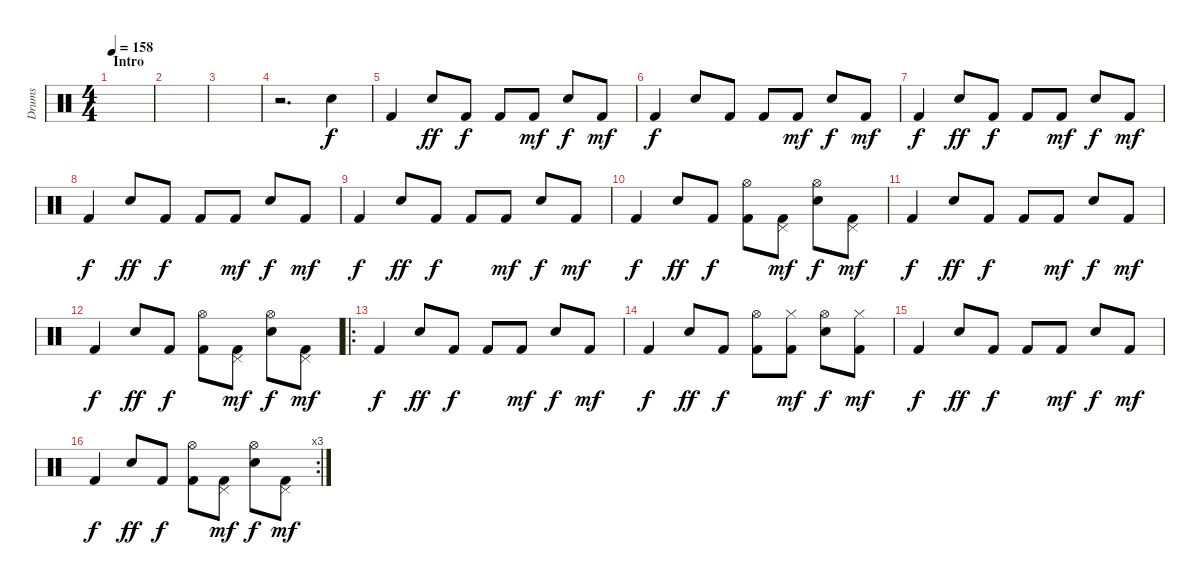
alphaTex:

\track ("Drums" "Drums") {instrument percussion}
\staff {score}
\articulation defaults
\ts (4 4)
\section ("" "Intro")
\tempo 158
\clef neutral
\ks c
|
|
|
r.2{d} "Snare (hit) 2".4 |
"Kick (hit) 2".4{dy f} "Snare (hit) 2".8{dy ff} "Kick (hit) 2".8{dy f} "Kick (hit) 2".8 "Kick (hit) 2".8{dy mf} "Snare (hit) 2".8{dy f} "Kick (hit) 2".8{dy mf} |
"Kick (hit) 2".4{dy f} "Snare (hit) 2".8 "Kick (hit) 2".8 "Kick (hit) 2".8 "Kick (hit) 2".8{dy mf} "Snare (hit) 2".8{dy f} "Kick (hit) 2".8{dy mf} |
"Kick (hit) 2".4{dy f} "Snare (hit) 2".8{dy ff} "Kick (hit) 2".8{dy f} "Kick (hit) 2".8 "Kick (hit) 2".8{dy mf} "Snare (hit) 2".8{dy f} "Kick (hit) 2".8{dy mf} |
"Kick (hit) 2".4{dy f} "Snare (hit) 2".8{dy ff} "Kick (hit) 2".8{dy f} "Kick (hit) 2".8 "Kick (hit) 2".8{dy mf} "Snare (hit) 2".8{dy f} "Kick (hit) 2".8{dy mf} |
"Kick (hit) 2".4{dy f} "Snare (hit) 2".8{dy ff} "Kick (hit) 2".8{dy f} "Kick (hit) 2".8 "Kick (hit) 2".8{dy mf} "Snare (hit) 2".8{dy f} "Kick (hit) 2".8{dy mf} |
"Kick (hit) 2".4{dy f} "Snare (hit) 2".8{dy ff} "Kick (hit) 2".8{dy f} ("Hi-Hat (open)" "Kick (hit) 2").8 ("Pedal Hi-Hat (hit)" "Kick (hit) 2").8{dy mf} ("Hi-Hat (open)" "Snare (hit) 2").8{dy f} ("Pedal Hi-Hat (hit)" "Kick (hit) 2").8{dy mf} |
"Kick (hit) 2".4{dy f} "Snare (hit) 2".8{dy ff} "Kick (hit) 2".8{dy f} "Kick (hit) 2".8 "Kick (hit) 2".8{dy mf} "Snare (hit) 2".8{dy f} "Kick (hit) 2".8{dy mf} |
"Kick (hit) 2".4{dy f} "Snare (hit) 2".8{dy ff} "Kick (hit) 2".8{dy f} ("Hi-Hat (open)" "Kick (hit) 2").8 ("Pedal Hi-Hat (hit)" "Kick (hit) 2").8{dy mf} ("Hi-Hat (open)" "Snare (hit) 2").8{dy f} ("Pedal Hi-Hat (hit)" "Kick (hit) 2").8{dy mf} |
\ro "Kick (hit) 2".4{dy f} "Snare (hit) 2".8{dy ff} "Kick (hit) 2".8{dy f} "Kick (hit) 2".8 "Kick (hit) 2".8{dy mf} "Snare (hit) 2".8{dy f} "Kick (hit) 2".8{dy mf}
|
"Kick (hit) 2".4{dy f} "Snare (hit) 2".8{dy ff} "Kick (hit) 2".8{dy f} ("Hi-Hat (open)" "Kick (hit) 2").8 ("Hi-Hat (closed)" "Kick (hit) 2").8{dy mf} ("Hi-Hat (open)" "Snare (hit) 2").8{dy f} ("Hi-Hat (closed)" "Kick (hit) 2").8{dy mf} |
"Kick (hit) 2".4{dy f} "Snare (hit) 2".8{dy ff} "Kick (hit) 2".8{dy f} "Kick (hit) 2".8 "Kick (hit) 2".8{dy mf} "Snare (hit) 2".8{dy f} "Kick (hit) 2".8{dy mf} |
\rc 3 "Kick (hit) 2".4{dy f} "Snare (hit) 2".8{dy ff} "Kick (hit) 2".8{dy f}
("Hi-Hat (open)" "Kick (hit) 2").8 ("Pedal Hi-Hat (hit)" "Kick (hit) 2").8{dy mf} ("Hi-Hat (open)" "Snare (hit) 2").8{dy f} ("Pedal Hi-Hat (hit)" "Kick (hit) 2").8{dy mf}
